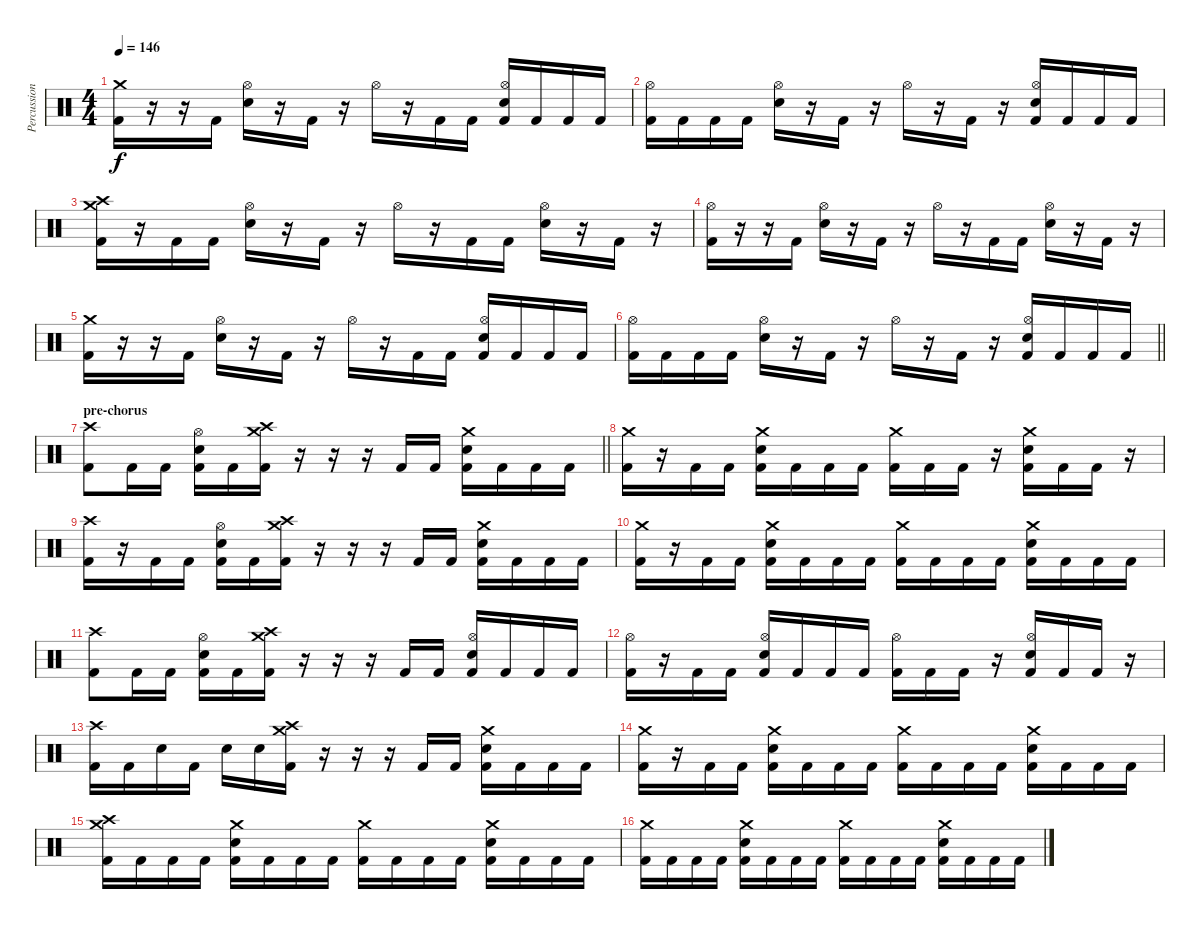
\track ("Percussion" "Percussion") {instrument percussion}
\staff {score}
\articulation defaults
\ts (4 4)
\tempo 146
\clef neutral
\ks c
("Crash medium (hit)" "Kick (hit) 2").16{dy f} r.16 r.16 "Kick (hit) 2".16 ("Hi-Hat (open)" "Snare (hit) 2").16 r.16 "Kick (hit) 2".16 r.16 "Hi-Hat (open)".16 r.16 "Kick (hit) 2".16 "Kick (hit) 2".16 ("Hi-Hat (open)" "Snare (hit) 2" "Kick (hit) 2").16 "Kick (hit) 2".16 "Kick (hit) 2".16 "Kick (hit) 2".16 |
("Hi-Hat (open)" "Kick (hit) 2").16 "Kick (hit) 2".16 "Kick (hit) 2".16 "Kick (hit) 2".16 ("Hi-Hat (open)" "Snare (hit) 2").16 r.16 "Kick (hit) 2".16 r.16 "Hi-Hat (open)".16 r.16 "Kick (hit) 2".16 r.16 ("Hi-Hat (open)" "Snare (hit) 2" "Kick (hit) 2").16 "Kick (hit) 2".16 "Kick (hit) 2".16 "Kick (hit) 2".16 |
("Crash high (hit)" "Crash medium (hit)" "Kick (hit) 2").16 r.16 "Kick (hit) 2".16 "Kick (hit) 2".16 ("Hi-Hat (open)" "Snare (hit) 2").16 r.16 "Kick (hit) 2".16 r.16 "Hi-Hat (open)".16 r.16 "Kick (hit) 2".16 "Kick (hit) 2".16 ("Hi-Hat (open)" "Snare (hit) 2").16 r.16 "Kick (hit) 2".16 r.16 |
("Hi-Hat (open)" "Kick (hit) 2").16 r.16 r.16 "Kick (hit) 2".16 ("Hi-Hat (open)" "Snare (hit) 2").16 r.16 "Kick (hit) 2".16 r.16 "Hi-Hat (open)".16 r.16 "Kick (hit) 2".16 "Kick (hit) 2".16 ("Hi-Hat (open)" "Snare (hit) 2").16 r.16 "Kick (hit) 2".16 r.16 |
("Crash medium (hit)" "Kick (hit) 2").16 r.16 r.16 "Kick (hit) 2".16 ("Hi-Hat (open)" "Snare (hit) 2").16 r.16 "Kick (hit) 2".16 r.16 "Hi-Hat (open)".16 r.16 "Kick (hit) 2".16 "Kick (hit) 2".16 ("Hi-Hat (open)" "Snare (hit) 2" "Kick (hit) 2").16 "Kick (hit) 2".16 "Kick (hit) 2".16 "Kick (hit) 2".16 |
\barLineRight lightlight
("Hi-Hat (open)" "Kick (hit) 2").16 "Kick (hit) 2".16 "Kick (hit) 2".16 "Kick (hit) 2".16 ("Hi-Hat (open)" "Snare (hit) 2").16 r.16 "Kick (hit) 2".16 r.16 "Hi-Hat (open)".16 r.16 "Kick (hit) 2".16 r.16 ("Hi-Hat (open)" "Snare (hit) 2" "Kick (hit) 2").16 "Kick (hit) 2".16 "Kick (hit) 2".16 "Kick (hit) 2".16 |
\section ("" "pre-chorus")
\barLineRight lightlight
("Crash high (hit)" "Kick (hit) 2").8 "Kick (hit) 2".16 "Kick (hit) 2".16 ("Hi-Hat (open)" "Snare (hit) 2" "Kick (hit) 2").16 "Kick (hit) 2".16 ("Crash high (hit)" "Crash medium (hit)" "Kick (hit) 2").16 r.16 r.16 r.16 "Kick (hit) 2".16 "Kick (hit) 2".16 ("Crash medium (hit)" "Snare (hit) 2" "Kick (hit) 2").16 "Kick (hit) 2".16 "Kick (hit) 2".16 "Kick (hit) 2".16 |
\section ("" "")
("Crash medium (hit)" "Kick (hit) 2").16 r.16 "Kick (hit) 2".16 "Kick (hit) 2".16 ("Crash medium (hit)" "Snare (hit) 2" "Kick (hit) 2").16 "Kick (hit) 2".16 "Kick (hit) 2".16 "Kick (hit) 2".16 ("Crash medium (hit)" "Kick (hit) 2").16 "Kick (hit) 2".16 "Kick (hit) 2".16 r.16 ("Crash medium (hit)" "Snare (hit) 2" "Kick (hit) 2").16 "Kick (hit) 2".16 "Kick (hit) 2".16 r.16 |
("Crash high (hit)" "Kick (hit) 2").16 r.16 "Kick (hit) 2".16 "Kick (hit) 2".16 ("Hi-Hat (open)" "Snare (hit) 2" "Kick (hit) 2").16 "Kick (hit) 2".16 ("Crash high (hit)" "Crash medium (hit)" "Kick (hit) 2").16 r.16 r.16 r.16 "Kick (hit) 2".16 "Kick (hit) 2".16 ("Crash medium (hit)" "Snare (hit) 2" "Kick (hit) 2").16 "Kick (hit) 2".16 "Kick (hit) 2".16 "Kick (hit) 2".16 |
("Crash medium (hit)" "Kick (hit) 2").16 r.16 "Kick (hit) 2".16 "Kick (hit) 2".16 ("Crash medium (hit)" "Snare (hit) 2" "Kick (hit) 2").16 "Kick (hit) 2".16 "Kick (hit) 2".16 "Kick (hit) 2".16 ("Crash medium (hit)" "Kick (hit) 2").16 "Kick (hit) 2".16 "Kick (hit) 2".16 "Kick (hit) 2".16 ("Crash medium (hit)" "Snare (hit) 2" "Kick (hit) 2").16 "Kick (hit) 2".16 "Kick (hit) 2".16 "Kick (hit) 2".16 |
("Crash high (hit)" "Kick (hit) 2").8 "Kick (hit) 2".16 "Kick (hit) 2".16 ("Hi-Hat (open)" "Snare (hit) 2" "Kick (hit) 2").16 "Kick (hit) 2".16 ("Crash high (hit)" "Crash medium (hit)" "Kick (hit) 2").16 r.16 r.16 r.16 "Kick (hit) 2".16 "Kick (hit) 2".16 ("Hi-Hat (open)" "Snare (hit) 2" "Kick (hit) 2").16 "Kick (hit) 2".16 "Kick (hit) 2".16 "Kick (hit) 2".16 |
("Hi-Hat (open)" "Kick (hit) 2").16 r.16 "Kick (hit) 2".16 "Kick (hit) 2".16 ("Hi-Hat (open)" "Snare (hit) 2" "Kick (hit) 2").16 "Kick (hit) 2".16 "Kick (hit) 2".16 "Kick (hit) 2".16 ("Hi-Hat (open)" "Kick (hit) 2").16 "Kick (hit) 2".16 "Kick (hit) 2".16 r.16 ("Hi-Hat (open)" "Snare (hit) 2" "Kick (hit) 2").16 "Kick (hit) 2".16 "Kick (hit) 2".16 r.16 |
("Crash high (hit)" "Kick (hit) 2").16 "Kick (hit) 2".16 "Snare (hit) 2".16 "Kick (hit) 2".16 "Snare (hit) 2".16 "Snare (hit) 2".16 ("Crash high (hit)" "Crash medium (hit)" "Kick (hit) 2").16 r.16 r.16 r.16 "Kick (hit) 2".16 "Kick (hit) 2".16 ("Crash medium (hit)" "Snare (hit) 2" "Kick (hit) 2").16 "Kick (hit) 2".16 "Kick (hit) 2".16 "Kick (hit) 2".16 |
("Crash medium (hit)" "Kick (hit) 2").16 r.16 "Kick (hit) 2".16 "Kick (hit) 2".16 ("Crash medium (hit)" "Snare (hit) 2" "Kick (hit) 2").16 "Kick (hit) 2".16 "Kick (hit) 2".16 "Kick (hit) 2".16 ("Crash medium (hit)" "Kick (hit) 2").16 "Kick (hit) 2".16 "Kick (hit) 2".16 "Kick (hit) 2".16 ("Crash medium (hit)" "Snare (hit) 2" "Kick (hit) 2").16 "Kick (hit) 2".16 "Kick (hit) 2".16 "Kick (hit) 2".16 |
("Crash high (hit)" "Crash medium (hit)" "Kick (hit) 2").16 "Kick (hit) 2".16 "Kick (hit) 2".16 "Kick (hit) 2".16 ("Crash medium (hit)" "Snare (hit) 2" "Kick (hit) 2").16 "Kick (hit) 2".16 "Kick (hit) 2".16 "Kick (hit) 2".16 ("Crash medium (hit)" "Kick (hit) 2").16 "Kick (hit) 2".16 "Kick (hit) 2".16 "Kick (hit) 2".16 ("Crash medium (hit)" "Snare (hit) 2" "Kick (hit) 2").16 "Kick (hit) 2".16 "Kick (hit) 2".16 "Kick (hit) 2".16 |
("Crash medium (hit)" "Kick (hit) 2").16 "Kick (hit) 2".16 "Kick (hit) 2".16 "Kick (hit) 2".16 ("Crash medium (hit)" "Snare (hit) 2" "Kick (hit) 2").16 "Kick (hit) 2".16 "Kick (hit) 2".16 "Kick (hit) 2".16 ("Crash medium (hit)" "Kick (hit) 2").16 "Kick (hit) 2".16 "Kick (hit) 2".16 "Kick (hit) 2".16 ("Crash medium (hit)" "Snare (hit) 2" "Kick (hit) 2").16 "Kick (hit) 2".16 "Kick (hit) 2".16 "Kick (hit) 2".16
